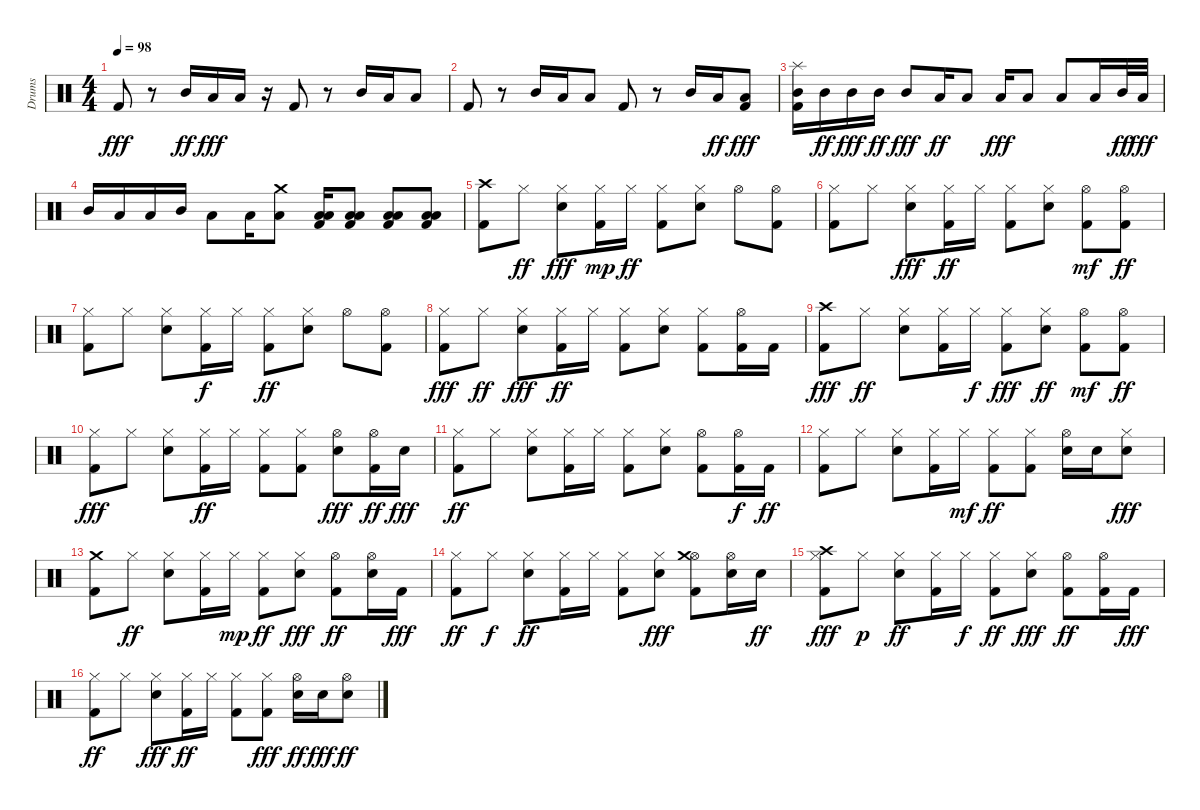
\track ("Drums" "Drums") {instrument percussion}
\staff {score}
\articulation defaults
\ts (4 4)
\tempo 98
\clef neutral
\ks c "Kick (hit) 2".8{dy fff}
r.8 "Mid Tom (hit)".16{dy ff} "Low Tom (hit)".16{dy fff} "Low Floor Tom (hit)".16 r.16 "Kick (hit) 2".8 r.8 "Mid Tom (hit)".16 "Low Tom (hit)".16 "Low Floor Tom (hit)".8 |
"Kick (hit) 2".8 r.8 "Mid Tom (hit)".16 "Low Tom (hit)".16 "Low Floor Tom (hit)".8 "Kick (hit) 2".8 r.8 "Mid Tom (hit)".16 "Low Tom (hit)".16{dy ff} ("Kick (hit) 2" "Low Floor Tom (hit)").8{dy fff} |
("Kick (hit) 2" "Mid Tom (hit)" "Splash (hit)").16 "Mid Tom (hit)".16{dy ff} "Mid Tom (hit)".16{dy fff} "Mid Tom (hit)".16{dy ff} "Mid Tom (hit)".8{dy fff} "Low Tom (hit)".16{dy ff} "Low Tom (hit)".8 "Low Tom (hit)".16{dy fff} "Low Tom (hit)".8 "Low Tom (hit)".8 "Low Tom (hit)".16 "Mid Tom (hit)".32{dy ff} "Low Tom (hit)".32{dy fff} |
"Mid Tom (hit)".16 "Low Tom (hit)".16 "Low Floor Tom (hit)".16 "Mid Tom (hit)".16 "Low Floor Tom (hit)".8 "Low Floor Tom (hit)".16 ("Low Tom (hit)" "Crash medium (hit)").8 ("Kick (hit) 2" "Low Tom (hit)" "Low Floor Tom (hit)").16 ("Kick (hit) 2" "Low Tom (hit)" "Low Floor Tom (hit)").8 ("Kick (hit) 2" "Low Floor Tom (hit)" "Low Tom (hit)").8 ("Kick (hit) 2" "Low Floor Tom (hit)" "Low Tom (hit)").8 |
("Kick (hit) 2" "Crash high (hit)").8 "Hi-Hat (closed)".8{dy ff} ("Snare (hit) 2" "Hi-Hat (closed)").8{dy fff} ("Kick (hit) 2" "Hi-Hat (closed)").16{dy mp} "Hi-Hat (closed)".16{dy ff} ("Kick (hit) 2" "Hi-Hat (closed)").8 ("Snare (hit) 2" "Hi-Hat (closed)").8 "Hi-Hat (open)".8 ("Kick (hit) 2" "Hi-Hat (open)").8 |
("Kick (hit) 2" "Hi-Hat (closed)").8 "Hi-Hat (closed)".8 ("Snare (hit) 2" "Hi-Hat (closed)").8{dy fff} ("Kick (hit) 2" "Hi-Hat (closed)").16{dy ff} "Hi-Hat (closed)".16 ("Kick (hit) 2" "Hi-Hat (closed)").8 ("Snare (hit) 2" "Hi-Hat (closed)").8 ("Kick (hit) 2" "Hi-Hat (open)").8{dy mf} ("Kick (hit) 2" "Hi-Hat (open)").8{dy ff} |
("Kick (hit) 2" "Hi-Hat (closed)").8 "Hi-Hat (closed)".8 ("Snare (hit) 2" "Hi-Hat (closed)").8 ("Kick (hit) 2" "Hi-Hat (closed)").16{dy f} "Hi-Hat (closed)".16 ("Kick (hit) 2" "Hi-Hat (closed)").8{dy ff} ("Snare (hit) 2" "Hi-Hat (closed)").8 "Hi-Hat (open)".8 ("Kick (hit) 2" "Hi-Hat (open)").8 |
("Kick (hit) 2" "Hi-Hat (closed)").8{dy fff} "Hi-Hat (closed)".8{dy ff} ("Snare (hit) 2" "Hi-Hat (closed)").8{dy fff} ("Kick (hit) 2" "Hi-Hat (closed)").16{dy ff} "Hi-Hat (closed)".16 ("Kick (hit) 2" "Hi-Hat (closed)").8 ("Snare (hit) 2" "Hi-Hat (closed)").8 ("Kick (hit) 2" "Hi-Hat (closed)").8 ("Kick (hit) 2" "Hi-Hat (open)").16 "Kick (hit) 2".16 |
("Kick (hit) 2" "Crash high (hit)").8{dy fff} "Hi-Hat (closed)".8{dy ff} ("Snare (hit) 2" "Hi-Hat (closed)").8 ("Kick (hit) 2" "Hi-Hat (closed)").16 "Hi-Hat (closed)".16{dy f} ("Kick (hit) 2" "Hi-Hat (closed)").8{dy fff} ("Snare (hit) 2" "Hi-Hat (closed)").8{dy ff} ("Kick (hit) 2" "Hi-Hat (open)").8{dy mf} ("Kick (hit) 2" "Hi-Hat (open)").8{dy ff} |
("Kick (hit) 2" "Hi-Hat (closed)").8{dy fff} "Hi-Hat (closed)".8 ("Snare (hit) 2" "Hi-Hat (closed)").8 ("Kick (hit) 2" "Hi-Hat (closed)").16{dy ff} "Hi-Hat (closed)".16 ("Kick (hit) 2" "Hi-Hat (closed)").8 ("Kick (hit) 2" "Hi-Hat (closed)").8 ("Snare (hit) 2" "Hi-Hat (open)").8{dy fff} ("Kick (hit) 2" "Hi-Hat (open)").16{dy ff} "Snare (hit) 2".16{dy fff} |
("Kick (hit) 2" "Hi-Hat (closed)").8{dy ff} "Hi-Hat (closed)".8 ("Snare (hit) 2" "Hi-Hat (closed)").8 ("Kick (hit) 2" "Hi-Hat (closed)").16 "Hi-Hat (closed)".16 ("Kick (hit) 2" "Hi-Hat (closed)").8 ("Snare (hit) 2" "Hi-Hat (closed)").8 ("Kick (hit) 2" "Hi-Hat (open)").8 ("Kick (hit) 2" "Hi-Hat (open)").16{dy f} "Kick (hit) 2".16{dy ff} |
("Kick (hit) 2" "Hi-Hat (closed)").8 "Hi-Hat (closed)".8 ("Snare (hit) 2" "Hi-Hat (closed)").8 ("Kick (hit) 2" "Hi-Hat (closed)").16 "Hi-Hat (closed)".16{dy mf} ("Kick (hit) 2" "Hi-Hat (closed)").8{dy ff} ("Kick (hit) 2" "Hi-Hat (closed)").8 ("Snare (hit) 2" "Hi-Hat (open)").16 "Snare (hit) 2".16 ("Snare (hit) 2" "Hi-Hat (closed)").8{dy fff} |
("Kick (hit) 2" "Crash medium (hit)").8 "Hi-Hat (closed)".8{dy ff} ("Snare (hit) 2" "Hi-Hat (closed)").8 ("Kick (hit) 2" "Hi-Hat (closed)").16 "Hi-Hat (closed)".16{dy mp} ("Kick (hit) 2" "Hi-Hat (closed)").8{dy ff} ("Snare (hit) 2" "Hi-Hat (closed)").8{dy fff} ("Kick (hit) 2" "Hi-Hat (open)").8{dy ff} ("Snare (hit) 2" "Hi-Hat (open)").16 "Kick (hit) 2".16{dy fff} |
("Kick (hit) 2" "Hi-Hat (closed)").8{dy ff} "Hi-Hat (closed)".8{dy f} ("Snare (hit) 2" "Hi-Hat (closed)").8{dy ff} ("Kick (hit) 2" "Hi-Hat (closed)").16 "Hi-Hat (closed)".16 ("Kick (hit) 2" "Hi-Hat (closed)").8 ("Snare (hit) 2" "Hi-Hat (closed)").8{dy fff} ("Kick (hit) 2" "Hi-Hat (open)" "Crash medium (hit)").8 ("Snare (hit) 2" "Hi-Hat (open)").16 "Snare (hit) 2".16{dy ff} |
("Kick (hit) 2" "Hi-Hat (closed)" "Crash high (hit)").8{dy fff} "Hi-Hat (closed)".8{dy p} ("Snare (hit) 2" "Hi-Hat (closed)").8{dy ff} ("Kick (hit) 2" "Hi-Hat (closed)").16 "Hi-Hat (closed)".16{dy f} ("Kick (hit) 2" "Hi-Hat (closed)").8{dy ff} ("Snare (hit) 2" "Hi-Hat (closed)").8{dy fff} ("Kick (hit) 2" "Hi-Hat (open)").8{dy ff} ("Kick (hit) 2" "Hi-Hat (open)").16 "Kick (hit) 2".16{dy fff} |
("Kick (hit) 2" "Hi-Hat (closed)").8{dy ff} "Hi-Hat (closed)".8 ("Snare (hit) 2" "Hi-Hat (closed)").8{dy fff} ("Kick (hit) 2" "Hi-Hat (closed)").16{dy ff} "Hi-Hat (closed)".16 ("Kick (hit) 2" "Hi-Hat (closed)").8 ("Kick (hit) 2" "Hi-Hat (closed)").8{dy fff} ("Snare (hit) 2" "Hi-Hat (open)").16{dy ff} "Snare (hit) 2".16{dy fff} ("Snare (hit) 2" "Hi-Hat (open)").8{dy ff}
